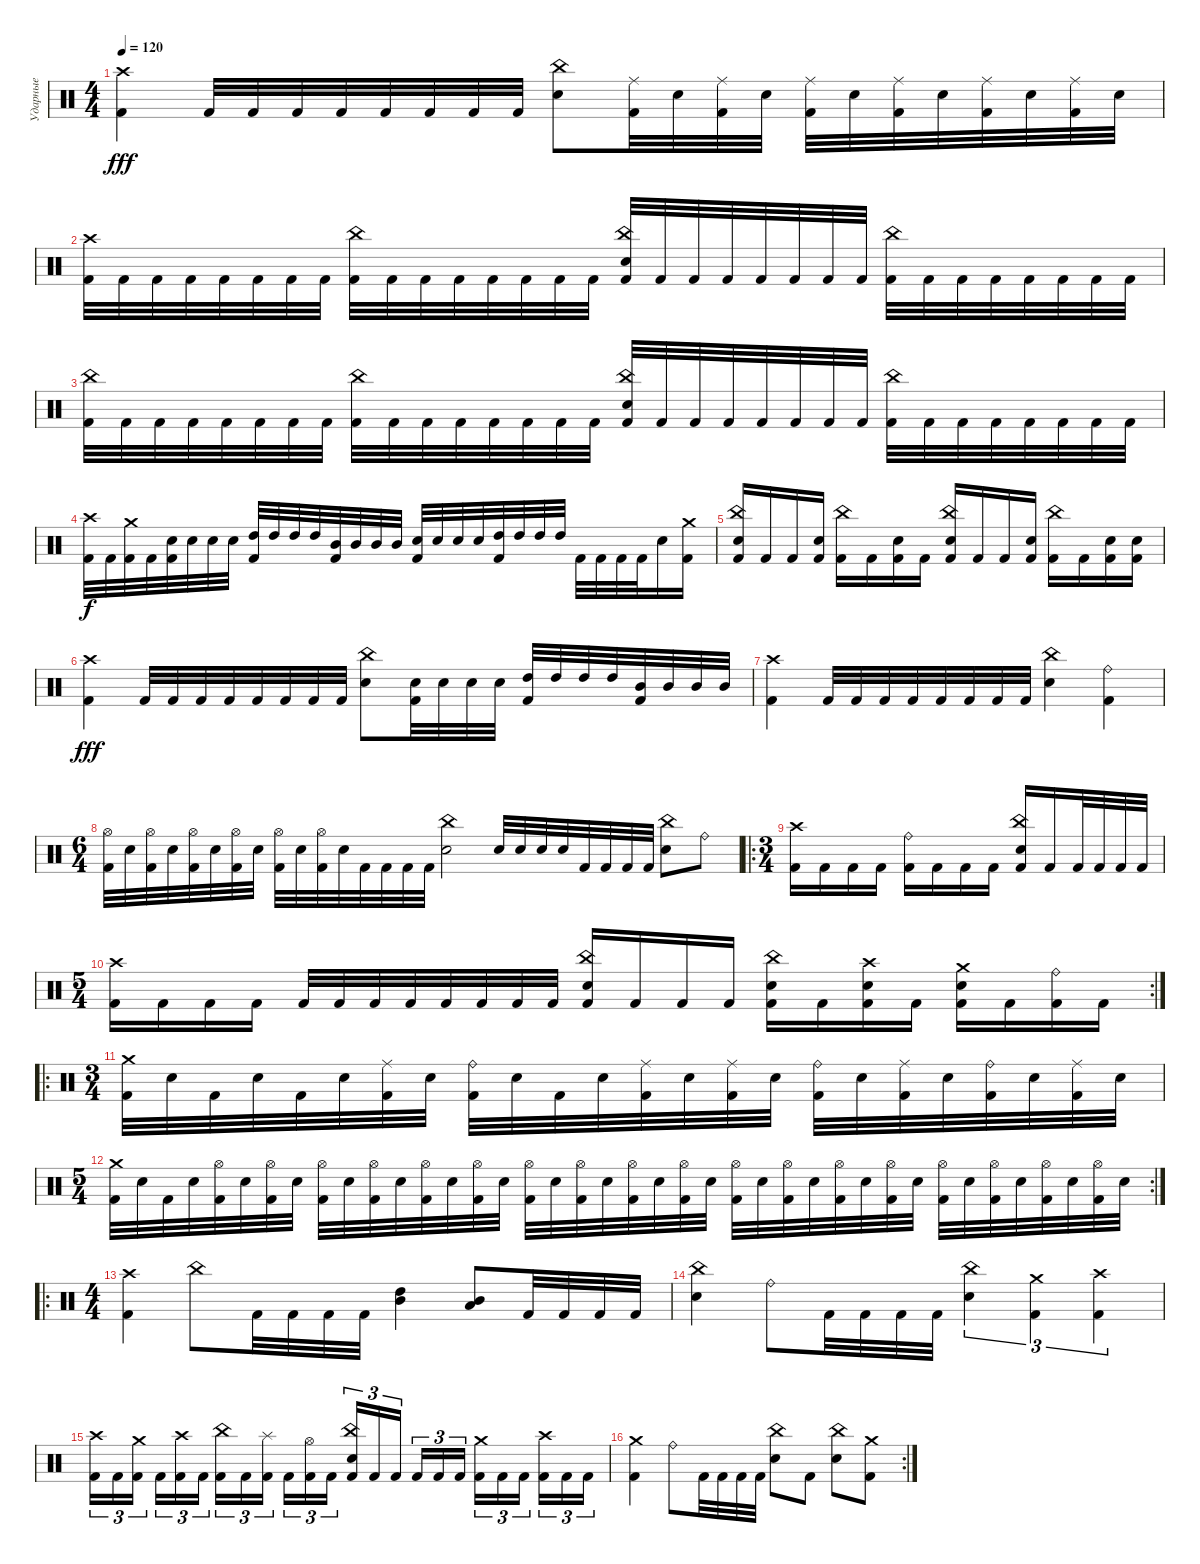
\track ("Ударные" "Ударные") {instrument percussion}
\staff {score}
\articulation defaults
\ts (4 4)
\tempo 120
\clef neutral
\ks c
("Crash high (hit)" "Kick (hit) 2").4{dy fff} "Kick (hit) 2".32 "Kick (hit) 2".32 "Kick (hit) 2".32 "Kick (hit) 2".32 "Kick (hit) 2".32 "Kick (hit) 2".32 "Kick (hit) 2".32 "Kick (hit) 2".32 ("China (hit)" "Electric Snare (hit)").8 ("Ride (middle)" "Kick (hit) 2").32 "Electric Snare (hit)".32 ("Ride (middle)" "Kick (hit) 2").32 "Electric Snare (hit)".32 ("Ride (middle)" "Kick (hit) 2").32 "Electric Snare (hit)".32 ("Ride (middle)" "Kick (hit) 2").32 "Electric Snare (hit)".32 ("Ride (middle)" "Kick (hit) 2").32 "Electric Snare (hit)".32 ("Ride (middle)" "Kick (hit) 2").32 "Electric Snare (hit)".32 |
("Kick (hit) 2" "Crash high (hit)").32 "Kick (hit) 2".32 "Kick (hit) 2".32 "Kick (hit) 2".32 "Kick (hit) 2".32 "Kick (hit) 2".32 "Kick (hit) 2".32 "Kick (hit) 2".32 ("Kick (hit) 2" "China (hit)").32 "Kick (hit) 2".32 "Kick (hit) 2".32 "Kick (hit) 2".32 "Kick (hit) 2".32 "Kick (hit) 2".32 "Kick (hit) 2".32 "Kick (hit) 2".32 ("Kick (hit) 2" "Electric Snare (hit)" "China (hit)").32 "Kick (hit) 2".32 "Kick (hit) 2".32 "Kick (hit) 2".32 "Kick (hit) 2".32 "Kick (hit) 2".32 "Kick (hit) 2".32 "Kick (hit) 2".32 ("Kick (hit) 2" "China (hit)").32 "Kick (hit) 2".32 "Kick (hit) 2".32 "Kick (hit) 2".32 "Kick (hit) 2".32 "Kick (hit) 2".32 "Kick (hit) 2".32 "Kick (hit) 2".32 |
("Kick (hit) 2" "China (hit)").32 "Kick (hit) 2".32 "Kick (hit) 2".32 "Kick (hit) 2".32 "Kick (hit) 2".32 "Kick (hit) 2".32 "Kick (hit) 2".32 "Kick (hit) 2".32 ("Kick (hit) 2" "China (hit)").32 "Kick (hit) 2".32 "Kick (hit) 2".32 "Kick (hit) 2".32 "Kick (hit) 2".32 "Kick (hit) 2".32 "Kick (hit) 2".32 "Kick (hit) 2".32 ("Kick (hit) 2" "Electric Snare (hit)" "China (hit)").32 "Kick (hit) 2".32 "Kick (hit) 2".32 "Kick (hit) 2".32 "Kick (hit) 2".32 "Kick (hit) 2".32 "Kick (hit) 2".32 "Kick (hit) 2".32 ("Kick (hit) 2" "China (hit)").32 "Kick (hit) 2".32 "Kick (hit) 2".32 "Kick (hit) 2".32 "Kick (hit) 2".32 "Kick (hit) 2".32 "Kick (hit) 2".32 "Kick (hit) 2".32 |
("Crash high (hit)" "Kick (hit) 2").32{dy f} "Kick (hit) 2".32 ("Crash medium (hit)" "Kick (hit) 2").32 "Kick (hit) 2".32 ("Electric Snare (hit)" "Kick (hit) 2").32 "Electric Snare (hit)".32 "Electric Snare (hit)".32 "Electric Snare (hit)".32 ("High Tom (hit)" "Kick (hit) 2").32 "High Tom (hit)".32 "High Tom (hit)".32 "High Tom (hit)".32 ("Mid Tom (hit)" "Kick (hit) 2").32 "Mid Tom (hit)".32 "Mid Tom (hit)".32 "Mid Tom (hit)".32 ("Electric Snare (hit)" "Kick (hit) 2").32 "Electric Snare (hit)".32 "Electric Snare (hit)".32 "Electric Snare (hit)".32 ("High Tom (hit)" "Kick (hit) 2").32 "High Tom (hit)".32 "High Tom (hit)".32 "High Tom (hit)".32 "Kick (hit) 2".32 "Kick (hit) 2".32 "Kick (hit) 2".32 "Kick (hit) 2".32 "Electric Snare (hit)".16 ("Crash medium (hit)" "Kick (hit) 2").16 |
("Kick (hit) 2" "Electric Snare (hit)" "China (hit)").16 "Kick (hit) 2".16 "Kick (hit) 2".16 ("Kick (hit) 2" "Electric Snare (hit)").16 ("Kick (hit) 2" "China (hit)").16 "Kick (hit) 2".16 ("Kick (hit) 2" "Electric Snare (hit)").16 "Kick (hit) 2".16 ("Kick (hit) 2" "Electric Snare (hit)" "China (hit)").16 "Kick (hit) 2".16 "Kick (hit) 2".16 ("Kick (hit) 2" "Electric Snare (hit)").16 ("Kick (hit) 2" "China (hit)").16 "Kick (hit) 2".16 ("Kick (hit) 2" "Electric Snare (hit)").16 ("Kick (hit) 2" "Electric Snare (hit)").16 |
("Crash high (hit)" "Kick (hit) 2").4{dy fff} "Kick (hit) 2".32 "Kick (hit) 2".32 "Kick (hit) 2".32 "Kick (hit) 2".32 "Kick (hit) 2".32 "Kick (hit) 2".32 "Kick (hit) 2".32 "Kick (hit) 2".32 ("China (hit)" "Electric Snare (hit)").8 ("Electric Snare (hit)" "Kick (hit) 2").32 "Electric Snare (hit)".32 "Electric Snare (hit)".32 "Electric Snare (hit)".32 ("High Tom (hit)" "Kick (hit) 2").32 "High Tom (hit)".32 "High Tom (hit)".32 "High Tom (hit)".32 ("Mid Tom (hit)" "Kick (hit) 2").32 "Mid Tom (hit)".32 "Mid Tom (hit)".32 "Mid Tom (hit)".32 |
("Crash high (hit)" "Kick (hit) 2").4 "Kick (hit) 2".32 "Kick (hit) 2".32 "Kick (hit) 2".32 "Kick (hit) 2".32 "Kick (hit) 2".32 "Kick (hit) 2".32 "Kick (hit) 2".32 "Kick (hit) 2".32 ("China (hit)" "Electric Snare (hit)").4 ("Ride (bell)" "Kick (hit) 2").4 |
\ts (6 4)
("Hi-Hat (open)" "Kick (hit) 2").32 "Electric Snare (hit)".32 ("Hi-Hat (open)" "Kick (hit) 2").32 "Electric Snare (hit)".32 ("Hi-Hat (open)" "Kick (hit) 2").32 "Electric Snare (hit)".32 ("Hi-Hat (open)" "Kick (hit) 2").32 "Electric Snare (hit)".32 ("Hi-Hat (open)" "Kick (hit) 2").32 "Electric Snare (hit)".32 ("Hi-Hat (open)" "Kick (hit) 2").32 "Electric Snare (hit)".32 "Kick (hit) 2".32 "Kick (hit) 2".32 "Kick (hit) 2".32 "Kick (hit) 2".32 ("China (hit)" "Electric Snare (hit)").2 "Electric Snare (hit)".32 "Electric Snare (hit)".32 "Electric Snare (hit)".32 "Electric Snare (hit)".32 "Kick (hit) 2".32 "Kick (hit) 2".32 "Kick (hit) 2".32 "Kick (hit) 2".32 ("China (hit)" "Electric Snare (hit)").8 "Ride (bell)".8 |
\ro
\ts (3 4)
("Crash high (hit)" "Kick (hit) 2").16 "Kick (hit) 2".16 "Kick (hit) 2".16 "Kick (hit) 2".16 ("Ride (bell)" "Kick (hit) 2").16 "Kick (hit) 2".16 "Kick (hit) 2".16 "Kick (hit) 2".16 ("China (hit)" "Electric Snare (hit)" "Kick (hit) 2").16 "Kick (hit) 2".16 "Kick (hit) 2".32 "Kick (hit) 2".32 "Kick (hit) 2".32 "Kick (hit) 2".32 |
\rc 2
\ts (5 4)
("Crash high (hit)" "Kick (hit) 2").16 "Kick (hit) 2".16 "Kick (hit) 2".16 "Kick (hit) 2".16 "Kick (hit) 2".32 "Kick (hit) 2".32 "Kick (hit) 2".32 "Kick (hit) 2".32 "Kick (hit) 2".32 "Kick (hit) 2".32 "Kick (hit) 2".32 "Kick (hit) 2".32 ("China (hit)" "Electric Snare (hit)" "Kick (hit) 2").16 "Kick (hit) 2".16 "Kick (hit) 2".16 "Kick (hit) 2".16 ("China (hit)" "Electric Snare (hit)" "Kick (hit) 2").16 "Kick (hit) 2".16 ("Crash high (hit)" "Electric Snare (hit)" "Kick (hit) 2").16 "Kick (hit) 2".16 ("Crash medium (hit)" "Electric Snare (hit)" "Kick (hit) 2").16 "Kick (hit) 2".16 ("Ride (bell)" "Kick (hit) 2").16 "Kick (hit) 2".16 |
\ro
\ts (3 4)
("Crash medium (hit)" "Kick (hit) 2").32 "Electric Snare (hit)".32 "Kick (hit) 2".32 "Electric Snare (hit)".32 "Kick (hit) 2".32 "Electric Snare (hit)".32 ("Ride (middle)" "Kick (hit) 2").32 "Electric Snare (hit)".32 ("Ride (bell)" "Kick (hit) 2").32 "Electric Snare (hit)".32 "Kick (hit) 2".32 "Electric Snare (hit)".32 ("Ride (middle)" "Kick (hit) 2").32 "Electric Snare (hit)".32 ("Ride (middle)" "Kick (hit) 2").32 "Electric Snare (hit)".32 ("Ride (bell)" "Kick (hit) 2").32 "Electric Snare (hit)".32 ("Ride (middle)" "Kick (hit) 2").32 "Electric Snare (hit)".32 ("Ride (bell)" "Kick (hit) 2").32 "Electric Snare (hit)".32 ("Ride (middle)" "Kick (hit) 2").32 "Electric Snare (hit)".32 |
\rc 2
\ts (5 4)
("Crash medium (hit)" "Kick (hit) 2").32 "Electric Snare (hit)".32 "Kick (hit) 2".32 "Electric Snare (hit)".32 ("Hi-Hat (open)" "Kick (hit) 2").32 "Electric Snare (hit)".32 ("Hi-Hat (open)" "Kick (hit) 2").32 "Electric Snare (hit)".32 ("Hi-Hat (open)" "Kick (hit) 2").32 "Electric Snare (hit)".32 ("Hi-Hat (open)" "Kick (hit) 2").32 "Electric Snare (hit)".32 ("Hi-Hat (open)" "Kick (hit) 2").32 "Electric Snare (hit)".32 ("Hi-Hat (open)" "Kick (hit) 2").32 "Electric Snare (hit)".32 ("Hi-Hat (open)" "Kick (hit) 2").32 "Electric Snare (hit)".32 ("Hi-Hat (open)" "Kick (hit) 2").32 "Electric Snare (hit)".32 ("Hi-Hat (open)" "Kick (hit) 2").32 "Electric Snare (hit)".32 ("Hi-Hat (open)" "Kick (hit) 2").32 "Electric Snare (hit)".32 ("Hi-Hat (open)" "Kick (hit) 2").32 "Electric Snare (hit)".32 ("Hi-Hat (open)" "Kick (hit) 2").32 "Electric Snare (hit)".32 ("Hi-Hat (open)" "Kick (hit) 2").32 "Electric Snare (hit)".32 ("Hi-Hat (open)" "Kick (hit) 2").32 "Electric Snare (hit)".32 ("Hi-Hat (open)" "Kick (hit) 2").32 "Electric Snare (hit)".32 ("Hi-Hat (open)" "Kick (hit) 2").32 "Electric Snare (hit)".32 ("Hi-Hat (open)" "Kick (hit) 2").32 "Electric Snare (hit)".32 ("Hi-Hat (open)" "Kick (hit) 2").32 "Electric Snare (hit)".32 |
\ro
\ts (4 4)
("Crash high (hit)" "Kick (hit) 2").4 "China (hit)".8 "Kick (hit) 2".32 "Kick (hit) 2".32 "Kick (hit) 2".32 "Kick (hit) 2".32 ("Mid Tom (hit)" "High Tom (hit)").4 ("Low Tom (hit)" "Mid Tom (hit)").8 "Kick (hit) 2".32 "Kick (hit) 2".32 "Kick (hit) 2".32 "Kick (hit) 2".32 |
("China (hit)" "Electric Snare (hit)").4 "Ride (bell)".8 "Kick (hit) 2".32 "Kick (hit) 2".32 "Kick (hit) 2".32 "Kick (hit) 2".32 ("China (hit)" "Electric Snare (hit)").4{tu (3 2)} ("Crash medium (hit)" "Kick (hit) 2").4{tu (3 2)} ("Crash high (hit)" "Kick (hit) 2").4{tu (3 2)} |
("Crash high (hit)" "Kick (hit) 2").16{tu (3 2)} "Kick (hit) 2".16{tu (3 2)} ("Crash medium (hit)" "Kick (hit) 2").16{tu (3 2) beam splitsecondary} "Kick (hit) 2".16{tu (3 2)} ("Crash high (hit)" "Kick (hit) 2").16{tu (3 2)} "Kick (hit) 2".16{tu (3 2)} ("China (hit)" "Kick (hit) 2").16{tu (3 2)} "Kick (hit) 2".16{tu (3 2)} ("Splash (hit)" "Kick (hit) 2").16{tu (3 2) beam splitsecondary} "Kick (hit) 2".16{tu (3 2)} ("Hi-Hat (open)" "Kick (hit) 2").16{tu (3 2)} "Kick (hit) 2".16{tu (3 2)} ("China (hit)" "Electric Snare (hit)" "Kick (hit) 2").16{tu (3 2)} "Kick (hit) 2".16{tu (3 2)} "Kick (hit) 2".16{tu (3 2) beam splitsecondary} "Kick (hit) 2".16{tu (3 2)} "Kick (hit) 2".16{tu (3 2)} "Kick (hit) 2".16{tu (3 2)} ("Crash medium (hit)" "Kick (hit) 2").16{tu (3 2)} "Kick (hit) 2".16{tu (3 2)} "Kick (hit) 2".16{tu (3 2) beam splitsecondary} ("Crash high (hit)" "Kick (hit) 2").16{tu (3 2)} "Kick (hit) 2".16{tu (3 2)} "Kick (hit) 2".16{tu (3 2)} |
\rc 2
("Crash medium (hit)" "Kick (hit) 2").4 "Ride (bell)".8 "Kick (hit) 2".32 "Kick (hit) 2".32 "Kick (hit) 2".32 "Kick (hit) 2".32 ("China (hit)" "Electric Snare (hit)").8 "Kick (hit) 2".8 ("China (hit)" "Electric Snare (hit)").8 ("Crash medium (hit)" "Kick (hit) 2").8
